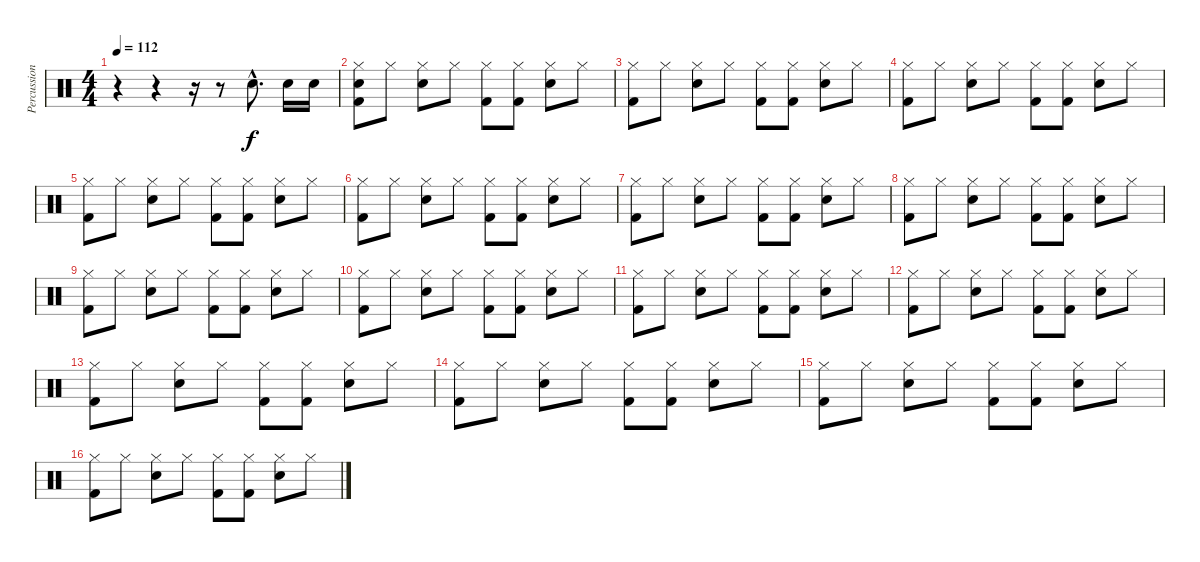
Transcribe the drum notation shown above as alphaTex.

\track ("Percussion" "Percussion") {instrument percussion}
\staff {score}
\articulation defaults
\ts (4 4)
\tempo 112
\clef neutral
\ks c
r.4{dy f} r.4 r.16 r.8 "Snare (hit) 2"{hac}.8{d} "Snare (hit) 2".16 "Snare (hit) 2".16 |
("Snare (hit) 2" "Kick (hit) 2" "Hi-Hat (closed)").8 "Hi-Hat (closed)".8 ("Snare (hit) 2" "Hi-Hat (closed)").8 "Hi-Hat (closed)".8 ("Kick (hit) 2" "Hi-Hat (closed)").8 ("Kick (hit) 2" "Hi-Hat (closed)").8 ("Snare (hit) 2" "Hi-Hat (closed)").8 "Hi-Hat (closed)".8 |
("Kick (hit) 2" "Hi-Hat (closed)").8 "Hi-Hat (closed)".8 ("Snare (hit) 2" "Hi-Hat (closed)").8 "Hi-Hat (closed)".8 ("Kick (hit) 2" "Hi-Hat (closed)").8 ("Kick (hit) 2" "Hi-Hat (closed)").8 ("Snare (hit) 2" "Hi-Hat (closed)").8 "Hi-Hat (closed)".8 |
("Kick (hit) 2" "Hi-Hat (closed)").8 "Hi-Hat (closed)".8 ("Snare (hit) 2" "Hi-Hat (closed)").8 "Hi-Hat (closed)".8 ("Kick (hit) 2" "Hi-Hat (closed)").8 ("Kick (hit) 2" "Hi-Hat (closed)").8 ("Snare (hit) 2" "Hi-Hat (closed)").8 "Hi-Hat (closed)".8 |
("Kick (hit) 2" "Hi-Hat (closed)").8 "Hi-Hat (closed)".8 ("Snare (hit) 2" "Hi-Hat (closed)").8 "Hi-Hat (closed)".8 ("Kick (hit) 2" "Hi-Hat (closed)").8 ("Kick (hit) 2" "Hi-Hat (closed)").8 ("Snare (hit) 2" "Hi-Hat (closed)").8 "Hi-Hat (closed)".8 |
("Kick (hit) 2" "Hi-Hat (closed)").8 "Hi-Hat (closed)".8 ("Snare (hit) 2" "Hi-Hat (closed)").8 "Hi-Hat (closed)".8 ("Kick (hit) 2" "Hi-Hat (closed)").8 ("Kick (hit) 2" "Hi-Hat (closed)").8 ("Snare (hit) 2" "Hi-Hat (closed)").8 "Hi-Hat (closed)".8 |
("Kick (hit) 2" "Hi-Hat (closed)").8 "Hi-Hat (closed)".8 ("Snare (hit) 2" "Hi-Hat (closed)").8 "Hi-Hat (closed)".8 ("Kick (hit) 2" "Hi-Hat (closed)").8 ("Kick (hit) 2" "Hi-Hat (closed)").8 ("Snare (hit) 2" "Hi-Hat (closed)").8 "Hi-Hat (closed)".8 |
("Kick (hit) 2" "Hi-Hat (closed)").8 "Hi-Hat (closed)".8 ("Snare (hit) 2" "Hi-Hat (closed)").8 "Hi-Hat (closed)".8 ("Kick (hit) 2" "Hi-Hat (closed)").8 ("Kick (hit) 2" "Hi-Hat (closed)").8 ("Snare (hit) 2" "Hi-Hat (closed)").8 "Hi-Hat (closed)".8 |
("Kick (hit) 2" "Hi-Hat (closed)").8 "Hi-Hat (closed)".8 ("Snare (hit) 2" "Hi-Hat (closed)").8 "Hi-Hat (closed)".8 ("Kick (hit) 2" "Hi-Hat (closed)").8 ("Kick (hit) 2" "Hi-Hat (closed)").8 ("Snare (hit) 2" "Hi-Hat (closed)").8 "Hi-Hat (closed)".8 |
("Kick (hit) 2" "Hi-Hat (closed)").8 "Hi-Hat (closed)".8 ("Snare (hit) 2" "Hi-Hat (closed)").8 "Hi-Hat (closed)".8 ("Kick (hit) 2" "Hi-Hat (closed)").8 ("Kick (hit) 2" "Hi-Hat (closed)").8 ("Snare (hit) 2" "Hi-Hat (closed)").8 "Hi-Hat (closed)".8 |
("Kick (hit) 2" "Hi-Hat (closed)").8 "Hi-Hat (closed)".8 ("Snare (hit) 2" "Hi-Hat (closed)").8 "Hi-Hat (closed)".8 ("Kick (hit) 2" "Hi-Hat (closed)").8 ("Kick (hit) 2" "Hi-Hat (closed)").8 ("Snare (hit) 2" "Hi-Hat (closed)").8 "Hi-Hat (closed)".8 |
("Kick (hit) 2" "Hi-Hat (closed)").8 "Hi-Hat (closed)".8 ("Snare (hit) 2" "Hi-Hat (closed)").8 "Hi-Hat (closed)".8 ("Kick (hit) 2" "Hi-Hat (closed)").8 ("Kick (hit) 2" "Hi-Hat (closed)").8 ("Snare (hit) 2" "Hi-Hat (closed)").8 "Hi-Hat (closed)".8 |
("Kick (hit) 2" "Hi-Hat (closed)").8 "Hi-Hat (closed)".8 ("Snare (hit) 2" "Hi-Hat (closed)").8 "Hi-Hat (closed)".8 ("Kick (hit) 2" "Hi-Hat (closed)").8 ("Kick (hit) 2" "Hi-Hat (closed)").8 ("Snare (hit) 2" "Hi-Hat (closed)").8 "Hi-Hat (closed)".8 |
("Kick (hit) 2" "Hi-Hat (closed)").8 "Hi-Hat (closed)".8 ("Snare (hit) 2" "Hi-Hat (closed)").8 "Hi-Hat (closed)".8 ("Kick (hit) 2" "Hi-Hat (closed)").8 ("Kick (hit) 2" "Hi-Hat (closed)").8 ("Snare (hit) 2" "Hi-Hat (closed)").8 "Hi-Hat (closed)".8 |
("Kick (hit) 2" "Hi-Hat (closed)").8 "Hi-Hat (closed)".8 ("Snare (hit) 2" "Hi-Hat (closed)").8 "Hi-Hat (closed)".8 ("Kick (hit) 2" "Hi-Hat (closed)").8 ("Kick (hit) 2" "Hi-Hat (closed)").8 ("Snare (hit) 2" "Hi-Hat (closed)").8 "Hi-Hat (closed)".8 |
("Kick (hit) 2" "Hi-Hat (closed)").8 "Hi-Hat (closed)".8 ("Snare (hit) 2" "Hi-Hat (closed)").8 "Hi-Hat (closed)".8 ("Kick (hit) 2" "Hi-Hat (closed)").8 ("Kick (hit) 2" "Hi-Hat (closed)").8 ("Snare (hit) 2" "Hi-Hat (closed)").8 "Hi-Hat (closed)".8
